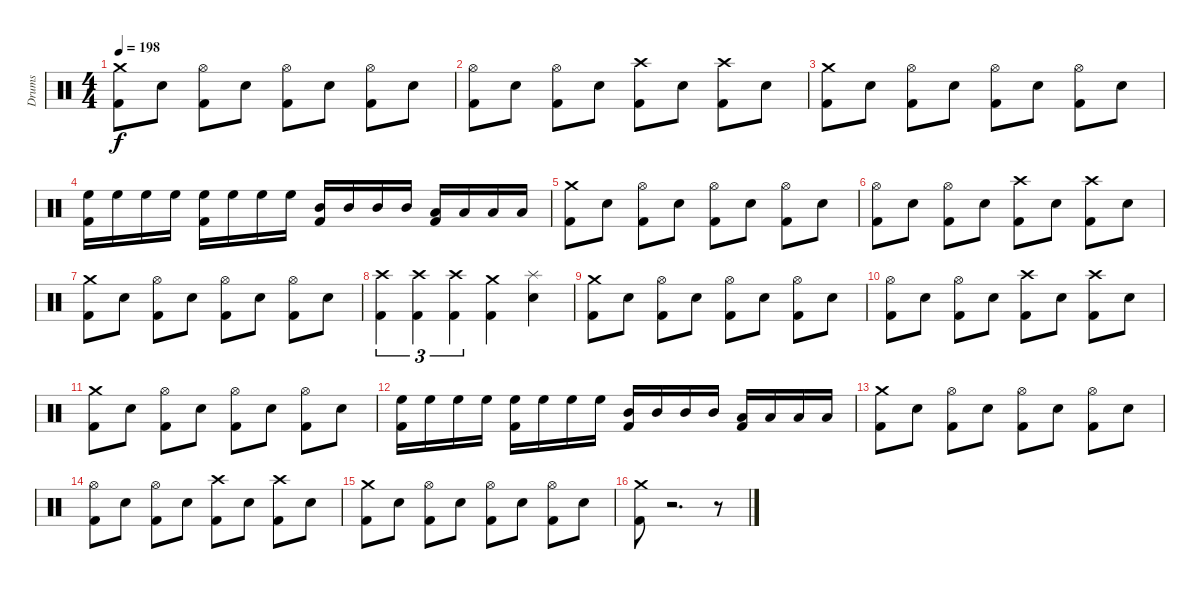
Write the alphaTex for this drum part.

\track ("Drums" "Drums") {instrument percussion}
\staff {score}
\articulation defaults
\ts (4 4)
\tempo 198
\clef neutral
\ks c
("Crash medium (hit)" "Kick (hit) 2").8{dy f} "Electric Snare (hit)".8 ("Hi-Hat (open)" "Kick (hit) 2").8 "Electric Snare (hit)".8 ("Hi-Hat (open)" "Kick (hit) 2").8 "Electric Snare (hit)".8 ("Hi-Hat (open)" "Kick (hit) 2").8 "Electric Snare (hit)".8 |
("Hi-Hat (open)" "Kick (hit) 2").8 "Electric Snare (hit)".8 ("Hi-Hat (open)" "Kick (hit) 2").8 "Electric Snare (hit)".8 ("Crash high (hit)" "Kick (hit) 2").8 "Electric Snare (hit)".8 ("Crash high (hit)" "Kick (hit) 2").8 "Electric Snare (hit)".8 |
("Crash medium (hit)" "Kick (hit) 2").8 "Electric Snare (hit)".8 ("Hi-Hat (open)" "Kick (hit) 2").8 "Electric Snare (hit)".8 ("Hi-Hat (open)" "Kick (hit) 2").8 "Electric Snare (hit)".8 ("Hi-Hat (open)" "Kick (hit) 2").8 "Electric Snare (hit)".8 |
("High Floor Tom (hit)" "Kick (hit) 2").16 "High Floor Tom (hit)".16 "High Floor Tom (hit)".16 "High Floor Tom (hit)".16 ("High Floor Tom (hit)" "Kick (hit) 2").16 "High Floor Tom (hit)".16 "High Floor Tom (hit)".16 "High Floor Tom (hit)".16 ("Mid Tom (hit)" "Kick (hit) 2").16 "Mid Tom (hit)".16 "Mid Tom (hit)".16 "Mid Tom (hit)".16 ("Low Tom (hit)" "Kick (hit) 2").16 "Low Tom (hit)".16 "Low Tom (hit)".16 "Low Tom (hit)".16 |
("Crash medium (hit)" "Kick (hit) 2").8 "Electric Snare (hit)".8 ("Hi-Hat (open)" "Kick (hit) 2").8 "Electric Snare (hit)".8 ("Hi-Hat (open)" "Kick (hit) 2").8 "Electric Snare (hit)".8 ("Hi-Hat (open)" "Kick (hit) 2").8 "Electric Snare (hit)".8 |
("Hi-Hat (open)" "Kick (hit) 2").8 "Electric Snare (hit)".8 ("Hi-Hat (open)" "Kick (hit) 2").8 "Electric Snare (hit)".8 ("Crash high (hit)" "Kick (hit) 2").8 "Electric Snare (hit)".8 ("Crash high (hit)" "Kick (hit) 2").8 "Electric Snare (hit)".8 |
("Crash medium (hit)" "Kick (hit) 2").8 "Electric Snare (hit)".8 ("Hi-Hat (open)" "Kick (hit) 2").8 "Electric Snare (hit)".8 ("Hi-Hat (open)" "Kick (hit) 2").8 "Electric Snare (hit)".8 ("Hi-Hat (open)" "Kick (hit) 2").8 "Electric Snare (hit)".8 |
("Crash high (hit)" "Kick (hit) 2").4{tu (3 2)} ("Crash high (hit)" "Kick (hit) 2").4{tu (3 2)} ("Crash high (hit)" "Kick (hit) 2").4{tu (3 2)} ("Crash medium (hit)" "Kick (hit) 2").4 ("Splash (hit)" "Electric Snare (hit)").4 |
("Crash medium (hit)" "Kick (hit) 2").8 "Electric Snare (hit)".8 ("Hi-Hat (open)" "Kick (hit) 2").8 "Electric Snare (hit)".8 ("Hi-Hat (open)" "Kick (hit) 2").8 "Electric Snare (hit)".8 ("Hi-Hat (open)" "Kick (hit) 2").8 "Electric Snare (hit)".8 |
("Hi-Hat (open)" "Kick (hit) 2").8 "Electric Snare (hit)".8 ("Hi-Hat (open)" "Kick (hit) 2").8 "Electric Snare (hit)".8 ("Crash high (hit)" "Kick (hit) 2").8 "Electric Snare (hit)".8 ("Crash high (hit)" "Kick (hit) 2").8 "Electric Snare (hit)".8 |
("Crash medium (hit)" "Kick (hit) 2").8 "Electric Snare (hit)".8 ("Hi-Hat (open)" "Kick (hit) 2").8 "Electric Snare (hit)".8 ("Hi-Hat (open)" "Kick (hit) 2").8 "Electric Snare (hit)".8 ("Hi-Hat (open)" "Kick (hit) 2").8 "Electric Snare (hit)".8 |
("High Floor Tom (hit)" "Kick (hit) 2").16 "High Floor Tom (hit)".16 "High Floor Tom (hit)".16 "High Floor Tom (hit)".16 ("High Floor Tom (hit)" "Kick (hit) 2").16 "High Floor Tom (hit)".16 "High Floor Tom (hit)".16 "High Floor Tom (hit)".16 ("Mid Tom (hit)" "Kick (hit) 2").16 "Mid Tom (hit)".16 "Mid Tom (hit)".16 "Mid Tom (hit)".16 ("Low Tom (hit)" "Kick (hit) 2").16 "Low Tom (hit)".16 "Low Tom (hit)".16 "Low Tom (hit)".16 |
("Crash medium (hit)" "Kick (hit) 2").8 "Electric Snare (hit)".8 ("Hi-Hat (open)" "Kick (hit) 2").8 "Electric Snare (hit)".8 ("Hi-Hat (open)" "Kick (hit) 2").8 "Electric Snare (hit)".8 ("Hi-Hat (open)" "Kick (hit) 2").8 "Electric Snare (hit)".8 |
("Hi-Hat (open)" "Kick (hit) 2").8 "Electric Snare (hit)".8 ("Hi-Hat (open)" "Kick (hit) 2").8 "Electric Snare (hit)".8 ("Crash high (hit)" "Kick (hit) 2").8 "Electric Snare (hit)".8 ("Crash high (hit)" "Kick (hit) 2").8 "Electric Snare (hit)".8 |
("Crash medium (hit)" "Kick (hit) 2").8 "Electric Snare (hit)".8 ("Hi-Hat (open)" "Kick (hit) 2").8 "Electric Snare (hit)".8 ("Hi-Hat (open)" "Kick (hit) 2").8 "Electric Snare (hit)".8 ("Hi-Hat (open)" "Kick (hit) 2").8 "Electric Snare (hit)".8 |
("Crash medium (hit)" "Kick (hit) 2").8 r.2{d volume 0} r.8
